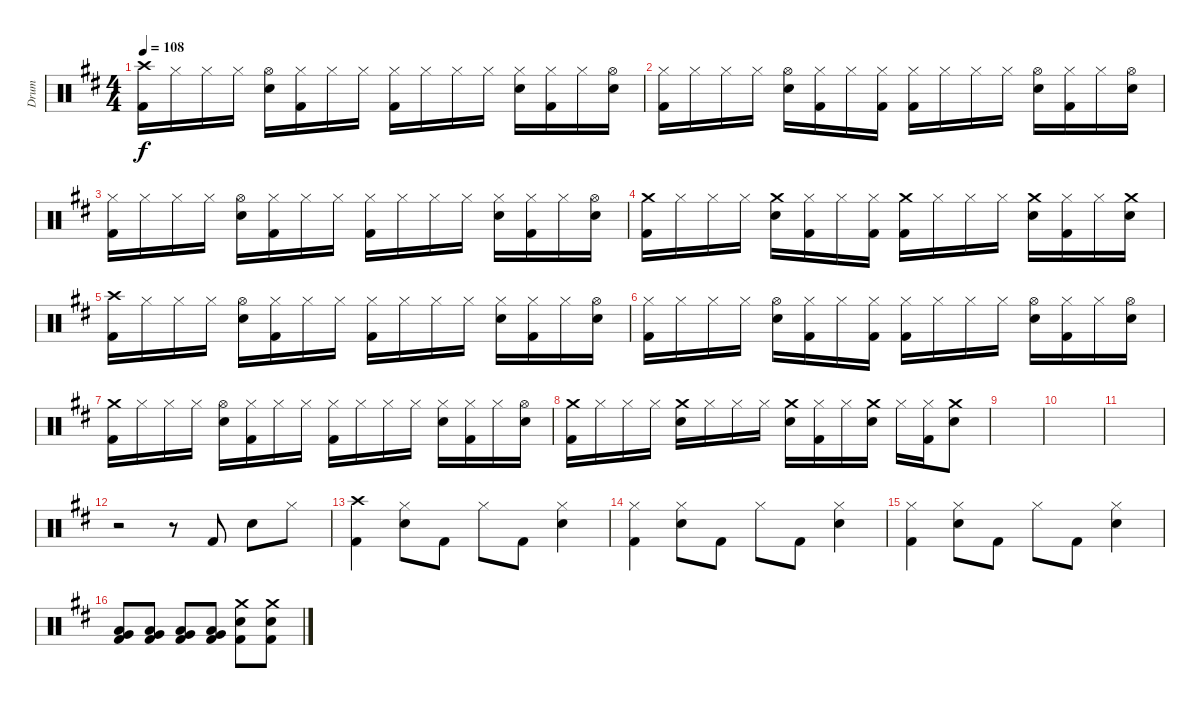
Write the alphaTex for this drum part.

\track ("Drum" "Drum") {instrument percussion}
\staff {score}
\articulation defaults
\ts (4 4)
\tempo 108
\clef neutral
\ks d
("Crash high (hit)" "Kick (hit) 2").16{dy f} "Hi-Hat (closed)".16 "Hi-Hat (closed)".16 "Hi-Hat (closed)".16 ("Hi-Hat (open)" "Snare (hit) 2").16 ("Hi-Hat (closed)" "Kick (hit) 2").16 "Hi-Hat (closed)".16 "Hi-Hat (closed)".16 ("Hi-Hat (closed)" "Kick (hit) 2").16 "Hi-Hat (closed)".16 "Hi-Hat (closed)".16 "Hi-Hat (closed)".16 ("Hi-Hat (closed)" "Snare (hit) 2").16 ("Hi-Hat (closed)" "Kick (hit) 2").16 "Hi-Hat (closed)".16 ("Hi-Hat (open)" "Snare (hit) 2").16 |
("Hi-Hat (closed)" "Kick (hit) 2").16 "Hi-Hat (closed)".16 "Hi-Hat (closed)".16 "Hi-Hat (closed)".16 ("Hi-Hat (open)" "Snare (hit) 2").16 ("Hi-Hat (closed)" "Kick (hit) 2").16 "Hi-Hat (closed)".16 ("Hi-Hat (closed)" "Kick (hit) 2").16 ("Hi-Hat (closed)" "Kick (hit) 2").16 "Hi-Hat (closed)".16 "Hi-Hat (closed)".16 "Hi-Hat (closed)".16 ("Hi-Hat (open)" "Snare (hit) 2").16 ("Hi-Hat (closed)" "Kick (hit) 2").16 "Hi-Hat (closed)".16 ("Hi-Hat (open)" "Snare (hit) 2").16 |
("Hi-Hat (closed)" "Kick (hit) 2").16 "Hi-Hat (closed)".16 "Hi-Hat (closed)".16 "Hi-Hat (closed)".16 ("Hi-Hat (open)" "Snare (hit) 2").16 ("Hi-Hat (closed)" "Kick (hit) 2").16 "Hi-Hat (closed)".16 "Hi-Hat (closed)".16 ("Hi-Hat (closed)" "Kick (hit) 2").16 "Hi-Hat (closed)".16 "Hi-Hat (closed)".16 "Hi-Hat (closed)".16 ("Hi-Hat (closed)" "Snare (hit) 2").16 ("Hi-Hat (closed)" "Kick (hit) 2").16 "Hi-Hat (closed)".16 ("Hi-Hat (open)" "Snare (hit) 2").16 |
("Crash medium (hit)" "Kick (hit) 2").16 "Hi-Hat (closed)".16 "Hi-Hat (closed)".16 "Hi-Hat (closed)".16 ("Crash medium (hit)" "Snare (hit) 2").16 ("Hi-Hat (closed)" "Kick (hit) 2").16 "Hi-Hat (closed)".16 ("Hi-Hat (closed)" "Kick (hit) 2").16 ("Crash medium (hit)" "Kick (hit) 2").16 "Hi-Hat (closed)".16 "Hi-Hat (closed)".16 "Hi-Hat (closed)".16 ("Crash medium (hit)" "Snare (hit) 2").16 ("Hi-Hat (closed)" "Kick (hit) 2").16 "Hi-Hat (closed)".16 ("Crash medium (hit)" "Snare (hit) 2").16 |
("Crash high (hit)" "Kick (hit) 2").16 "Hi-Hat (closed)".16 "Hi-Hat (closed)".16 "Hi-Hat (closed)".16 ("Hi-Hat (open)" "Snare (hit) 2").16 ("Hi-Hat (closed)" "Kick (hit) 2").16 "Hi-Hat (closed)".16 "Hi-Hat (closed)".16 ("Hi-Hat (closed)" "Kick (hit) 2").16 "Hi-Hat (closed)".16 "Hi-Hat (closed)".16 "Hi-Hat (closed)".16 ("Hi-Hat (closed)" "Snare (hit) 2").16 ("Hi-Hat (closed)" "Kick (hit) 2").16 "Hi-Hat (closed)".16 ("Hi-Hat (open)" "Snare (hit) 2").16 |
("Hi-Hat (closed)" "Kick (hit) 2").16 "Hi-Hat (closed)".16 "Hi-Hat (closed)".16 "Hi-Hat (closed)".16 ("Hi-Hat (open)" "Snare (hit) 2").16 ("Hi-Hat (closed)" "Kick (hit) 2").16 "Hi-Hat (closed)".16 ("Hi-Hat (closed)" "Kick (hit) 2").16 ("Hi-Hat (closed)" "Kick (hit) 2").16 "Hi-Hat (closed)".16 "Hi-Hat (closed)".16 "Hi-Hat (closed)".16 ("Hi-Hat (open)" "Snare (hit) 2").16 ("Hi-Hat (closed)" "Kick (hit) 2").16 "Hi-Hat (closed)".16 ("Hi-Hat (open)" "Snare (hit) 2").16 |
("Crash medium (hit)" "Kick (hit) 2").16 "Hi-Hat (closed)".16 "Hi-Hat (closed)".16 "Hi-Hat (closed)".16 ("Hi-Hat (open)" "Snare (hit) 2").16 ("Hi-Hat (closed)" "Kick (hit) 2").16 "Hi-Hat (closed)".16 "Hi-Hat (closed)".16 ("Hi-Hat (closed)" "Kick (hit) 2").16 "Hi-Hat (closed)".16 "Hi-Hat (closed)".16 "Hi-Hat (closed)".16 ("Hi-Hat (closed)" "Snare (hit) 2").16 ("Hi-Hat (closed)" "Kick (hit) 2").16 "Hi-Hat (closed)".16 ("Hi-Hat (open)" "Snare (hit) 2").16 |
("Crash medium (hit)" "Kick (hit) 2").16 "Hi-Hat (closed)".16 "Hi-Hat (closed)".16 "Hi-Hat (closed)".16 ("Crash medium (hit)" "Snare (hit) 2").16 "Hi-Hat (closed)".16 "Hi-Hat (closed)".16 "Hi-Hat (closed)".16 ("Crash medium (hit)" "Snare (hit) 2").16 ("Hi-Hat (closed)" "Kick (hit) 2").16 "Hi-Hat (closed)".16 ("Crash medium (hit)" "Snare (hit) 2").16 "Hi-Hat (closed)".16 ("Hi-Hat (closed)" "Kick (hit) 2").16 ("Crash medium (hit)" "Snare (hit) 2").8 |
|
|
|
r.2 r.8 "Kick (hit) 2".8 "Snare (hit) 2".8 "Hi-Hat (closed)".8 |
("Crash high (hit)" "Kick (hit) 2").4 ("Hi-Hat (closed)" "Snare (hit) 2").8 "Kick (hit) 2".8 "Hi-Hat (closed)".8 "Kick (hit) 2".8 ("Hi-Hat (closed)" "Snare (hit) 2").4 |
("Hi-Hat (closed)" "Kick (hit) 2").4 ("Hi-Hat (closed)" "Snare (hit) 2").8 "Kick (hit) 2".8 "Hi-Hat (closed)".8 "Kick (hit) 2".8 ("Hi-Hat (closed)" "Snare (hit) 2").4 |
("Hi-Hat (closed)" "Kick (hit) 2").4 ("Hi-Hat (closed)" "Snare (hit) 2").8 "Kick (hit) 2".8 "Hi-Hat (closed)".8 "Kick (hit) 2".8 ("Hi-Hat (closed)" "Snare (hit) 2").4 |
("Low Floor Tom (hit)" "Very Low Tom (hit)" "Kick (hit) 2").8 ("Low Floor Tom (hit)" "Very Low Tom (hit)" "Kick (hit) 2").8 ("Low Floor Tom (hit)" "Very Low Tom (hit)" "Kick (hit) 2").8 ("Low Floor Tom (hit)" "Very Low Tom (hit)" "Kick (hit) 2").8 ("Crash medium (hit)" "Snare (hit) 2" "Kick (hit) 2").8 ("Crash medium (hit)" "Snare (hit) 2" "Kick (hit) 2").8
